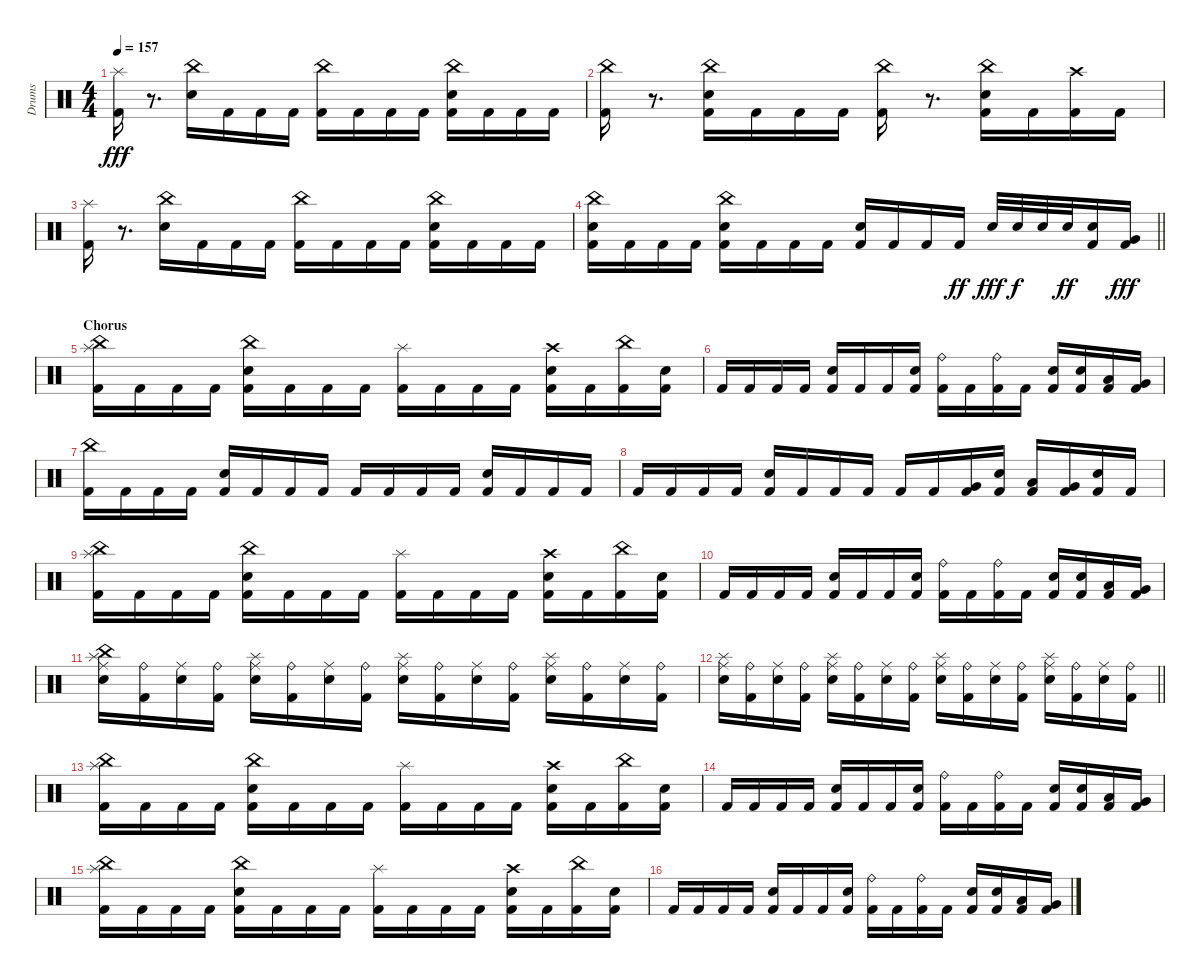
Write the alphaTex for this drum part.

\track ("Drums" "Drums") {instrument percussion}
\staff {score}
\articulation defaults
\ts (4 4)
\tempo 157
\clef neutral
\ks c
("Kick (hit) 2" "Splash (hit)").16{dy fff} r.8{d} ("Snare (hit) 2" "China (hit)").16 "Kick (hit) 2".16 "Kick (hit) 2".16 "Kick (hit) 2".16 ("Kick (hit) 2" "China (hit)").16 "Kick (hit) 2".16 "Kick (hit) 2".16 "Kick (hit) 2".16 ("Kick (hit) 2" "Snare (hit) 2" "China (hit)").16 "Kick (hit) 2".16 "Kick (hit) 2".16 "Kick (hit) 2".16 |
("Kick (hit) 2" "China (hit)").16 r.8{d} ("Kick (hit) 2" "Snare (hit) 2" "China (hit)").16 "Kick (hit) 2".16 "Kick (hit) 2".16 "Kick (hit) 2".16 ("Kick (hit) 2" "China (hit)").16 r.8{d} ("Kick (hit) 2" "Snare (hit) 2" "China (hit)").16 "Kick (hit) 2".16 ("Kick (hit) 2" "Crash high (hit)").16 "Kick (hit) 2".16 |
("Kick (hit) 2" "Splash (hit)").16 r.8{d} ("Snare (hit) 2" "China (hit)").16 "Kick (hit) 2".16 "Kick (hit) 2".16 "Kick (hit) 2".16 ("Kick (hit) 2" "China (hit)").16 "Kick (hit) 2".16 "Kick (hit) 2".16 "Kick (hit) 2".16 ("Kick (hit) 2" "Snare (hit) 2" "China (hit)").16 "Kick (hit) 2".16 "Kick (hit) 2".16 "Kick (hit) 2".16 |
\barLineRight lightlight
("Kick (hit) 2" "Snare (hit) 2" "China (hit)").16 "Kick (hit) 2".16 "Kick (hit) 2".16 "Kick (hit) 2".16 ("Kick (hit) 2" "Snare (hit) 2" "China (hit)").16 "Kick (hit) 2".16 "Kick (hit) 2".16 "Kick (hit) 2".16 ("Kick (hit) 2" "Snare (hit) 2").16 "Kick (hit) 2".16 "Kick (hit) 2".16 "Kick (hit) 2".16{dy ff} "Snare (hit) 2".32{dy fff} "Snare (hit) 2".32{dy f} "Snare (hit) 2".32 "Snare (hit) 2".32{dy ff} ("Kick (hit) 2" "Snare (hit) 2").16 ("Kick (hit) 2" "Very Low Tom (hit)").16{dy fff} |
\section ("" "Chorus")
("Kick (hit) 2" "China (hit)" "Splash (hit)").16 "Kick (hit) 2".16 "Kick (hit) 2".16 "Kick (hit) 2".16 ("Kick (hit) 2" "Snare (hit) 2" "China (hit)").16 "Kick (hit) 2".16 "Kick (hit) 2".16 "Kick (hit) 2".16 ("Kick (hit) 2" "Splash (hit)").16 "Kick (hit) 2".16 "Kick (hit) 2".16 "Kick (hit) 2".16 ("Kick (hit) 2" "Snare (hit) 2" "Crash high (hit)").16 "Kick (hit) 2".16 ("Kick (hit) 2" "China (hit)").16 ("Kick (hit) 2" "Snare (hit) 2").16 |
"Kick (hit) 2".16 "Kick (hit) 2".16 "Kick (hit) 2".16 "Kick (hit) 2".16 ("Kick (hit) 2" "Snare (hit) 2").16 "Kick (hit) 2".16 "Kick (hit) 2".16 ("Kick (hit) 2" "Snare (hit) 2").16 ("Kick (hit) 2" "Ride (bell)").16 "Kick (hit) 2".16 ("Kick (hit) 2" "Ride (bell)").16 "Kick (hit) 2".16 ("Kick (hit) 2" "Snare (hit) 2").16 ("Kick (hit) 2" "Snare (hit) 2").16 ("Kick (hit) 2" "Low Tom (hit)").16 ("Kick (hit) 2" "Very Low Tom (hit)").16 |
("Kick (hit) 2" "China (hit)").16 "Kick (hit) 2".16 "Kick (hit) 2".16 "Kick (hit) 2".16 ("Kick (hit) 2" "Snare (hit) 2").16 "Kick (hit) 2".16 "Kick (hit) 2".16 "Kick (hit) 2".16 "Kick (hit) 2".16 "Kick (hit) 2".16 "Kick (hit) 2".16 "Kick (hit) 2".16 ("Kick (hit) 2" "Snare (hit) 2").16 "Kick (hit) 2".16 "Kick (hit) 2".16 "Kick (hit) 2".16 |
"Kick (hit) 2".16 "Kick (hit) 2".16 "Kick (hit) 2".16 "Kick (hit) 2".16 ("Kick (hit) 2" "Snare (hit) 2").16 "Kick (hit) 2".16 "Kick (hit) 2".16 "Kick (hit) 2".16 "Kick (hit) 2".16 "Kick (hit) 2".16 ("Kick (hit) 2" "Very Low Tom (hit)").16 ("Kick (hit) 2" "Snare (hit) 2").16 ("Kick (hit) 2" "Low Tom (hit)").16 ("Kick (hit) 2" "Very Low Tom (hit)").16 ("Kick (hit) 2" "Snare (hit) 2").16 "Kick (hit) 2".16 |
("Kick (hit) 2" "China (hit)" "Splash (hit)").16 "Kick (hit) 2".16 "Kick (hit) 2".16 "Kick (hit) 2".16 ("Kick (hit) 2" "Snare (hit) 2" "China (hit)").16 "Kick (hit) 2".16 "Kick (hit) 2".16 "Kick (hit) 2".16 ("Kick (hit) 2" "Splash (hit)").16 "Kick (hit) 2".16 "Kick (hit) 2".16 "Kick (hit) 2".16 ("Kick (hit) 2" "Snare (hit) 2" "Crash high (hit)").16 "Kick (hit) 2".16 ("Kick (hit) 2" "China (hit)").16 ("Kick (hit) 2" "Snare (hit) 2").16 |
"Kick (hit) 2".16 "Kick (hit) 2".16 "Kick (hit) 2".16 "Kick (hit) 2".16 ("Kick (hit) 2" "Snare (hit) 2").16 "Kick (hit) 2".16 "Kick (hit) 2".16 ("Kick (hit) 2" "Snare (hit) 2").16 ("Kick (hit) 2" "Ride (bell)").16 "Kick (hit) 2".16 ("Kick (hit) 2" "Ride (bell)").16 "Kick (hit) 2".16 ("Kick (hit) 2" "Snare (hit) 2").16 ("Kick (hit) 2" "Snare (hit) 2").16 ("Kick (hit) 2" "Low Tom (hit)").16 ("Kick (hit) 2" "Very Low Tom (hit)").16 |
("Snare (hit) 2" "Ride (middle)" "China (hit)" "Splash (hit)").16 ("Kick (hit) 2" "Ride (bell)").16 ("Snare (hit) 2" "Ride (middle)").16 ("Kick (hit) 2" "Ride (bell)").16 ("Snare (hit) 2" "Ride (middle)" "Splash (hit)").16 ("Kick (hit) 2" "Ride (bell)").16 ("Snare (hit) 2" "Ride (middle)").16 ("Kick (hit) 2" "Ride (bell)").16 ("Snare (hit) 2" "Ride (middle)" "Splash (hit)").16 ("Kick (hit) 2" "Ride (bell)").16 ("Snare (hit) 2" "Ride (middle)").16 ("Kick (hit) 2" "Ride (bell)").16 ("Snare (hit) 2" "Ride (middle)" "Splash (hit)").16 ("Kick (hit) 2" "Ride (bell)").16 ("Snare (hit) 2" "Ride (middle)").16 ("Kick (hit) 2" "Ride (bell)").16 |
\barLineRight lightlight
("Snare (hit) 2" "Ride (middle)" "Splash (hit)").16 ("Kick (hit) 2" "Ride (bell)").16 ("Snare (hit) 2" "Ride (middle)").16 ("Kick (hit) 2" "Ride (bell)").16 ("Snare (hit) 2" "Ride (middle)" "Splash (hit)").16 ("Kick (hit) 2" "Ride (bell)").16 ("Snare (hit) 2" "Ride (middle)").16 ("Kick (hit) 2" "Ride (bell)").16 ("Snare (hit) 2" "Ride (middle)" "Splash (hit)").16 ("Kick (hit) 2" "Ride (bell)").16 ("Snare (hit) 2" "Ride (middle)").16 ("Kick (hit) 2" "Ride (bell)").16 ("Snare (hit) 2" "Ride (middle)" "Splash (hit)").16 ("Kick (hit) 2" "Ride (bell)").16 ("Snare (hit) 2" "Ride (middle)").16 ("Kick (hit) 2" "Ride (bell)").16 |
("Kick (hit) 2" "China (hit)" "Splash (hit)").16 "Kick (hit) 2".16 "Kick (hit) 2".16 "Kick (hit) 2".16 ("Kick (hit) 2" "Snare (hit) 2" "China (hit)").16 "Kick (hit) 2".16 "Kick (hit) 2".16 "Kick (hit) 2".16 ("Kick (hit) 2" "Splash (hit)").16 "Kick (hit) 2".16 "Kick (hit) 2".16 "Kick (hit) 2".16 ("Kick (hit) 2" "Snare (hit) 2" "Crash high (hit)").16 "Kick (hit) 2".16 ("Kick (hit) 2" "China (hit)").16 ("Kick (hit) 2" "Snare (hit) 2").16 |
"Kick (hit) 2".16 "Kick (hit) 2".16 "Kick (hit) 2".16 "Kick (hit) 2".16 ("Kick (hit) 2" "Snare (hit) 2").16 "Kick (hit) 2".16 "Kick (hit) 2".16 ("Kick (hit) 2" "Snare (hit) 2").16 ("Kick (hit) 2" "Ride (bell)").16 "Kick (hit) 2".16 ("Kick (hit) 2" "Ride (bell)").16 "Kick (hit) 2".16 ("Kick (hit) 2" "Snare (hit) 2").16 ("Kick (hit) 2" "Snare (hit) 2").16 ("Kick (hit) 2" "Low Tom (hit)").16 ("Kick (hit) 2" "Very Low Tom (hit)").16 |
("Kick (hit) 2" "China (hit)" "Splash (hit)").16 "Kick (hit) 2".16 "Kick (hit) 2".16 "Kick (hit) 2".16 ("Kick (hit) 2" "Snare (hit) 2" "China (hit)").16 "Kick (hit) 2".16 "Kick (hit) 2".16 "Kick (hit) 2".16 ("Kick (hit) 2" "Splash (hit)").16 "Kick (hit) 2".16 "Kick (hit) 2".16 "Kick (hit) 2".16 ("Kick (hit) 2" "Snare (hit) 2" "Crash high (hit)").16 "Kick (hit) 2".16 ("Kick (hit) 2" "China (hit)").16 ("Kick (hit) 2" "Snare (hit) 2").16 |
"Kick (hit) 2".16 "Kick (hit) 2".16 "Kick (hit) 2".16 "Kick (hit) 2".16 ("Kick (hit) 2" "Snare (hit) 2").16 "Kick (hit) 2".16 "Kick (hit) 2".16 ("Kick (hit) 2" "Snare (hit) 2").16 ("Kick (hit) 2" "Ride (bell)").16 "Kick (hit) 2".16 ("Kick (hit) 2" "Ride (bell)").16 "Kick (hit) 2".16 ("Kick (hit) 2" "Snare (hit) 2").16 ("Kick (hit) 2" "Snare (hit) 2").16 ("Kick (hit) 2" "Low Tom (hit)").16 ("Kick (hit) 2" "Very Low Tom (hit)").16
